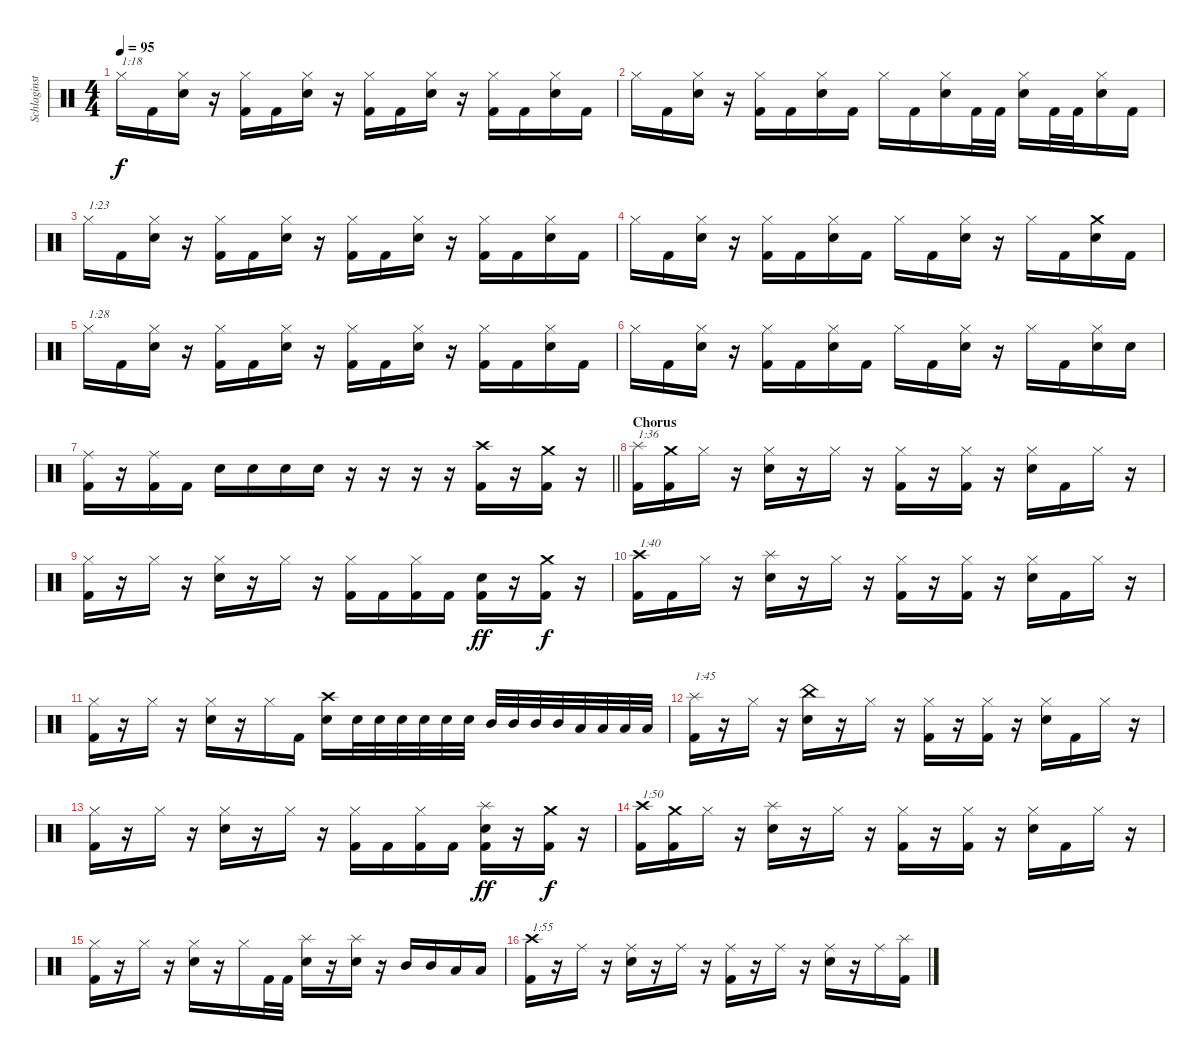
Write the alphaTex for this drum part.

\track ("Schlaginstrumente - Auswahl" "Schlaginst") {instrument percussion}
\staff {score}
\articulation defaults
\ts (4 4)
\tempo 95
\clef neutral
\ks c "Hi-Hat (closed)".16{txt "1:18" dy f} "Kick (hit) 2".16
("Hi-Hat (closed)" "Electric Snare (hit)").16 r.16 ("Hi-Hat (closed)" "Kick (hit) 2").16 "Kick (hit) 2".16 ("Hi-Hat (closed)" "Electric Snare (hit)").16 r.16 ("Hi-Hat (closed)" "Kick (hit) 2").16 "Kick (hit) 2".16 ("Hi-Hat (closed)" "Electric Snare (hit)").16 r.16 ("Hi-Hat (closed)" "Kick (hit) 2").16 "Kick (hit) 2".16 ("Hi-Hat (closed)" "Electric Snare (hit)").16 "Kick (hit) 2".16 |
"Hi-Hat (closed)".16 "Kick (hit) 2".16 ("Hi-Hat (closed)" "Electric Snare (hit)").16 r.16 ("Hi-Hat (closed)" "Kick (hit) 2").16 "Kick (hit) 2".16 ("Hi-Hat (closed)" "Electric Snare (hit)").16 "Kick (hit) 2".16 "Hi-Hat (closed)".16 "Kick (hit) 2".16 ("Hi-Hat (closed)" "Electric Snare (hit)").16 "Kick (hit) 2".32 "Kick (hit) 2".32 ("Hi-Hat (closed)" "Electric Snare (hit)").16 "Kick (hit) 2".32 "Kick (hit) 2".32 ("Hi-Hat (closed)" "Electric Snare (hit)").16 "Kick (hit) 2".16 |
"Hi-Hat (closed)".16{txt "1:23"} "Kick (hit) 2".16 ("Hi-Hat (closed)" "Electric Snare (hit)").16 r.16 ("Hi-Hat (closed)" "Kick (hit) 2").16 "Kick (hit) 2".16 ("Hi-Hat (closed)" "Electric Snare (hit)").16 r.16 ("Hi-Hat (closed)" "Kick (hit) 2").16 "Kick (hit) 2".16 ("Hi-Hat (closed)" "Electric Snare (hit)").16 r.16 ("Hi-Hat (closed)" "Kick (hit) 2").16 "Kick (hit) 2".16 ("Hi-Hat (closed)" "Electric Snare (hit)").16 "Kick (hit) 2".16 |
"Hi-Hat (closed)".16 "Kick (hit) 2".16 ("Hi-Hat (closed)" "Electric Snare (hit)").16 r.16 ("Hi-Hat (closed)" "Kick (hit) 2").16 "Kick (hit) 2".16 ("Hi-Hat (closed)" "Electric Snare (hit)").16 "Kick (hit) 2".16 "Hi-Hat (closed)".16 "Kick (hit) 2".16 ("Hi-Hat (closed)" "Electric Snare (hit)").16 r.16 "Hi-Hat (closed)".16 "Kick (hit) 2".16 ("Crash medium (hit)" "Electric Snare (hit)").16 "Kick (hit) 2".16 |
"Hi-Hat (closed)".16{txt "1:28"} "Kick (hit) 2".16 ("Hi-Hat (closed)" "Electric Snare (hit)").16 r.16 ("Hi-Hat (closed)" "Kick (hit) 2").16 "Kick (hit) 2".16 ("Hi-Hat (closed)" "Electric Snare (hit)").16 r.16 ("Hi-Hat (closed)" "Kick (hit) 2").16 "Kick (hit) 2".16 ("Hi-Hat (closed)" "Electric Snare (hit)").16 r.16 ("Hi-Hat (closed)" "Kick (hit) 2").16 "Kick (hit) 2".16 ("Hi-Hat (closed)" "Electric Snare (hit)").16 "Kick (hit) 2".16 |
"Hi-Hat (closed)".16 "Kick (hit) 2".16 ("Hi-Hat (closed)" "Electric Snare (hit)").16 r.16 ("Hi-Hat (closed)" "Kick (hit) 2").16 "Kick (hit) 2".16 ("Hi-Hat (closed)" "Electric Snare (hit)").16 "Kick (hit) 2".16 "Hi-Hat (closed)".16 "Kick (hit) 2".16 ("Hi-Hat (closed)" "Electric Snare (hit)").16 r.16 "Hi-Hat (closed)".16 "Kick (hit) 2".16 ("Hi-Hat (closed)" "Electric Snare (hit)").16 "Electric Snare (hit)".16 |
\barLineRight lightlight
("Ride (middle)" "Kick (hit) 2").16 r.16 ("Ride (middle)" "Kick (hit) 2").16 "Kick (hit) 2".16 "Electric Snare (hit)".16 "Electric Snare (hit)".16 "Electric Snare (hit)".16 "Electric Snare (hit)".16 r.16 r.16 r.16 r.16 ("Crash high (hit)" "Kick (hit) 2").16 r.16 ("Crash medium (hit)" "Kick (hit) 2").16 r.16 |
\section ("" "Chorus")
("Splash (hit)" "Kick (hit) 2").16{txt "1:36"} ("Crash medium (hit)" "Kick (hit) 2").16 "Hi-Hat (closed)".16 r.16 ("Hi-Hat (closed)" "Electric Snare (hit)").16 r.16 "Hi-Hat (closed)".16 r.16 ("Hi-Hat (closed)" "Kick (hit) 2").16 r.16 ("Hi-Hat (closed)" "Kick (hit) 2").16 r.16 ("Hi-Hat (closed)" "Electric Snare (hit)").16 "Kick (hit) 2".16 "Hi-Hat (closed)".16 r.16 |
("Hi-Hat (closed)" "Kick (hit) 2").16 r.16 "Hi-Hat (closed)".16 r.16 ("Hi-Hat (closed)" "Electric Snare (hit)").16 r.16 "Hi-Hat (closed)".16 r.16 ("Hi-Hat (closed)" "Kick (hit) 2").16 "Kick (hit) 2".16 ("Hi-Hat (closed)" "Kick (hit) 2").16 "Kick (hit) 2".16 ("Electric Snare (hit)" "Kick (hit) 2").16{dy ff} r.16 ("Crash medium (hit)" "Kick (hit) 2").16{dy f} r.16 |
("Crash high (hit)" "Kick (hit) 2").16{txt "1:40"} "Kick (hit) 2".16 "Hi-Hat (closed)".16 r.16 ("Splash (hit)" "Electric Snare (hit)").16 r.16 "Hi-Hat (closed)".16 r.16 ("Hi-Hat (closed)" "Kick (hit) 2").16 r.16 ("Hi-Hat (closed)" "Kick (hit) 2").16 r.16 ("Hi-Hat (closed)" "Electric Snare (hit)").16 "Kick (hit) 2".16 "Hi-Hat (closed)".16 r.16 |
("Hi-Hat (closed)" "Kick (hit) 2").16 r.16 "Hi-Hat (closed)".16 r.16 ("Hi-Hat (closed)" "Electric Snare (hit)").16 r.16 "Hi-Hat (closed)".16 "Kick (hit) 2".16 ("Crash high (hit)" "Electric Snare (hit)").16 "Electric Snare (hit)".32 "Electric Snare (hit)".32 "Electric Snare (hit)".32 "Electric Snare (hit)".32 "Electric Snare (hit)".32 "Electric Snare (hit)".32 "Mid Tom (hit)".32 "Mid Tom (hit)".32 "Mid Tom (hit)".32 "Mid Tom (hit)".32 "Low Tom (hit)".32 "Low Tom (hit)".32 "Low Tom (hit)".32 "Low Tom (hit)".32 |
("Splash (hit)" "Kick (hit) 2").16{txt "1:45"} r.16 "Hi-Hat (closed)".16 r.16 ("China (hit)" "Electric Snare (hit)").16 r.16 "Hi-Hat (closed)".16 r.16 ("Hi-Hat (closed)" "Kick (hit) 2").16 r.16 ("Hi-Hat (closed)" "Kick (hit) 2").16 r.16 ("Hi-Hat (closed)" "Electric Snare (hit)").16 "Kick (hit) 2".16 "Hi-Hat (closed)".16 r.16 |
("Hi-Hat (closed)" "Kick (hit) 2").16 r.16 "Hi-Hat (closed)".16 r.16 ("Hi-Hat (closed)" "Electric Snare (hit)").16 r.16 "Hi-Hat (closed)".16 r.16 ("Hi-Hat (closed)" "Kick (hit) 2").16 "Kick (hit) 2".16 ("Hi-Hat (closed)" "Kick (hit) 2").16 "Kick (hit) 2".16 ("Splash (hit)" "Electric Snare (hit)" "Kick (hit) 2").16{dy ff} r.16 ("Crash medium (hit)" "Kick (hit) 2").16{dy f} r.16 |
("Crash high (hit)" "Kick (hit) 2").16{txt "1:50"} ("Crash medium (hit)" "Kick (hit) 2").16 "Hi-Hat (closed)".16 r.16 ("Splash (hit)" "Electric Snare (hit)").16 r.16 "Hi-Hat (closed)".16 r.16 ("Hi-Hat (closed)" "Kick (hit) 2").16 r.16 ("Hi-Hat (closed)" "Kick (hit) 2").16 r.16 ("Hi-Hat (closed)" "Electric Snare (hit)").16 "Kick (hit) 2".16 "Hi-Hat (closed)".16 r.16 |
("Hi-Hat (closed)" "Kick (hit) 2").16 r.16 "Hi-Hat (closed)".16 r.16 ("Hi-Hat (closed)" "Electric Snare (hit)").16 r.16 "Hi-Hat (closed)".16 "Kick (hit) 2".32 "Kick (hit) 2".32 ("Splash (hit)" "Electric Snare (hit)").16 r.16 ("Splash (hit)" "Electric Snare (hit)").16 r.16 "Mid Tom (hit)".16 "Mid Tom (hit)".16 "Low Tom (hit)".16 "Low Tom (hit)".16 |
("Crash high (hit)" "Kick (hit) 2").16{txt "1:55"} r.16 "Ride (middle)".16 r.16 ("Ride (middle)" "Electric Snare (hit)").16 r.16 "Ride (middle)".16 r.16 ("Ride (middle)" "Kick (hit) 2").16 r.16 "Ride (middle)".16 r.16 ("Ride (middle)" "Electric Snare (hit)").16 r.16 "Ride (middle)".16 ("Splash (hit)" "Kick (hit) 2").16
